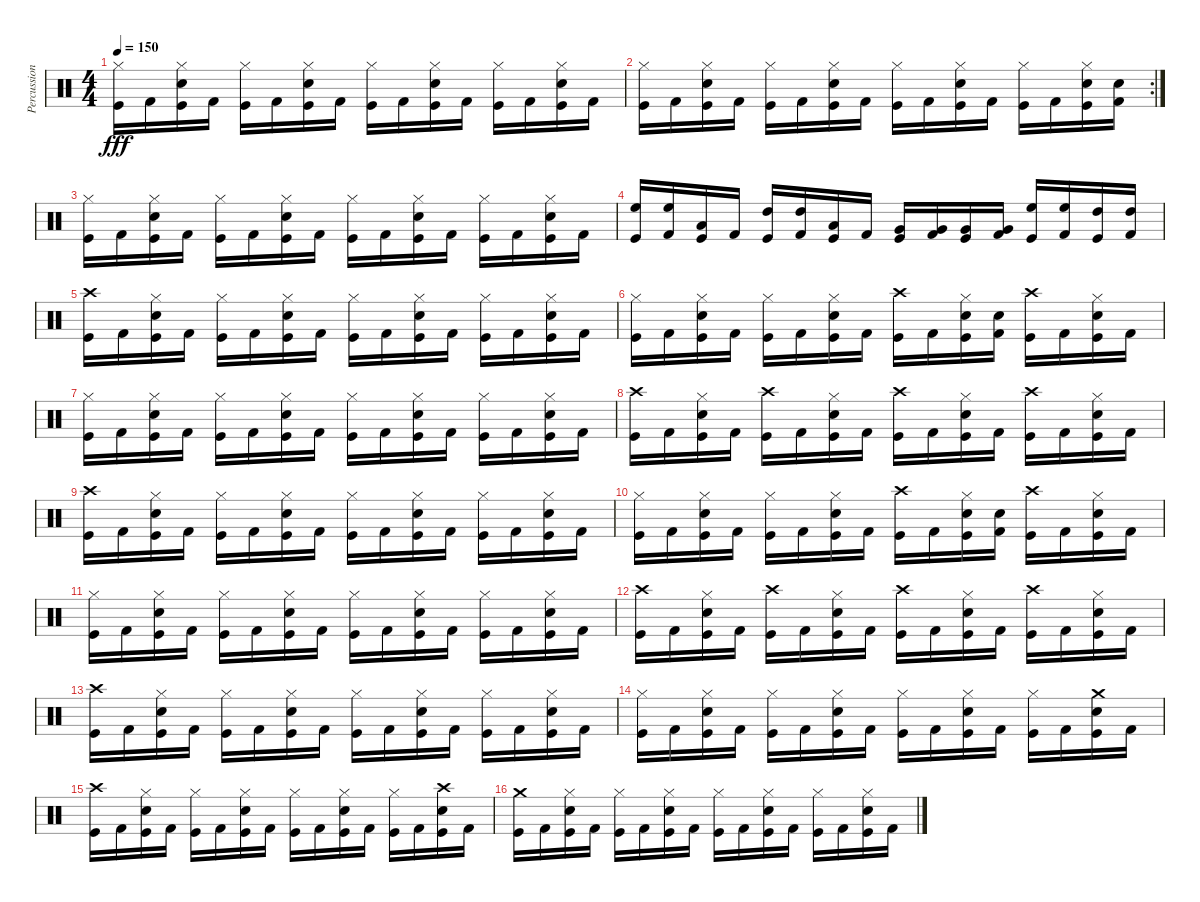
\track ("Percussion" "Percussion") {instrument percussion}
\staff {score}
\articulation defaults
\ts (4 4)
\tempo 150
\clef neutral
\ks c
("Hi-Hat (closed)" "Kick (hit)").16{dy fff} "Kick (hit) 2".16 ("Hi-Hat (closed)" "Electric Snare (hit)" "Kick (hit)").16 "Kick (hit) 2".16 ("Hi-Hat (closed)" "Kick (hit)").16 "Kick (hit) 2".16 ("Hi-Hat (closed)" "Electric Snare (hit)" "Kick (hit)").16 "Kick (hit) 2".16 ("Hi-Hat (closed)" "Kick (hit)").16 "Kick (hit) 2".16 ("Hi-Hat (closed)" "Electric Snare (hit)" "Kick (hit)").16 "Kick (hit) 2".16 ("Hi-Hat (closed)" "Kick (hit)").16 "Kick (hit) 2".16 ("Hi-Hat (closed)" "Electric Snare (hit)" "Kick (hit)").16 "Kick (hit) 2".16 |
\rc 2
("Hi-Hat (closed)" "Kick (hit)").16 "Kick (hit) 2".16 ("Hi-Hat (closed)" "Electric Snare (hit)" "Kick (hit)").16 "Kick (hit) 2".16 ("Hi-Hat (closed)" "Kick (hit)").16 "Kick (hit) 2".16 ("Hi-Hat (closed)" "Electric Snare (hit)" "Kick (hit)").16 "Kick (hit) 2".16 ("Hi-Hat (closed)" "Kick (hit)").16 "Kick (hit) 2".16 ("Hi-Hat (closed)" "Electric Snare (hit)" "Kick (hit)").16 "Kick (hit) 2".16 ("Hi-Hat (closed)" "Kick (hit)").16 "Kick (hit) 2".16 ("Hi-Hat (closed)" "Electric Snare (hit)" "Kick (hit)").16 ("Electric Snare (hit)" "Kick (hit) 2").16 |
("Hi-Hat (closed)" "Kick (hit)").16 "Kick (hit) 2".16 ("Hi-Hat (closed)" "Electric Snare (hit)" "Kick (hit)").16 "Kick (hit) 2".16 ("Hi-Hat (closed)" "Kick (hit)").16 "Kick (hit) 2".16 ("Hi-Hat (closed)" "Electric Snare (hit)" "Kick (hit)").16 "Kick (hit) 2".16 ("Hi-Hat (closed)" "Kick (hit)").16 "Kick (hit) 2".16 ("Hi-Hat (closed)" "Electric Snare (hit)" "Kick (hit)").16 "Kick (hit) 2".16 ("Hi-Hat (closed)" "Kick (hit)").16 "Kick (hit) 2".16 ("Hi-Hat (closed)" "Electric Snare (hit)" "Kick (hit)").16 "Kick (hit) 2".16 |
("High Floor Tom (hit)" "Kick (hit)").16 ("High Floor Tom (hit)" "Kick (hit) 2").16 ("Low Floor Tom (hit)" "Kick (hit)").16 "Kick (hit) 2".16 ("High Tom (hit)" "Kick (hit)").16 ("High Tom (hit)" "Kick (hit) 2").16 ("Low Floor Tom (hit)" "Kick (hit)").16 "Kick (hit) 2".16 ("Very Low Tom (hit)" "Kick (hit)").16 ("Very Low Tom (hit)" "Kick (hit) 2").16 ("Very Low Tom (hit)" "Kick (hit)").16 ("Very Low Tom (hit)" "Kick (hit) 2").16 ("High Floor Tom (hit)" "Kick (hit)").16 ("High Floor Tom (hit)" "Kick (hit) 2").16 ("High Tom (hit)" "Kick (hit)").16 ("High Tom (hit)" "Kick (hit) 2").16 |
("Crash high (hit)" "Kick (hit)").16 "Kick (hit) 2".16 ("Hi-Hat (closed)" "Electric Snare (hit)" "Kick (hit)").16 "Kick (hit) 2".16 ("Hi-Hat (closed)" "Kick (hit)").16 "Kick (hit) 2".16 ("Hi-Hat (closed)" "Electric Snare (hit)" "Kick (hit)").16 "Kick (hit) 2".16 ("Hi-Hat (closed)" "Kick (hit)").16 "Kick (hit) 2".16 ("Hi-Hat (closed)" "Electric Snare (hit)" "Kick (hit)").16 "Kick (hit) 2".16 ("Hi-Hat (closed)" "Kick (hit)").16 "Kick (hit) 2".16 ("Hi-Hat (closed)" "Electric Snare (hit)" "Kick (hit)").16 "Kick (hit) 2".16 |
("Hi-Hat (closed)" "Kick (hit)").16 "Kick (hit) 2".16 ("Hi-Hat (closed)" "Electric Snare (hit)" "Kick (hit)").16 "Kick (hit) 2".16 ("Hi-Hat (closed)" "Kick (hit)").16 "Kick (hit) 2".16 ("Hi-Hat (closed)" "Electric Snare (hit)" "Kick (hit)").16 "Kick (hit) 2".16 ("Crash high (hit)" "Kick (hit)").16 "Kick (hit) 2".16 ("Hi-Hat (closed)" "Electric Snare (hit)" "Kick (hit)").16 ("Electric Snare (hit)" "Kick (hit) 2").16 ("Crash high (hit)" "Kick (hit)").16 "Kick (hit) 2".16 ("Hi-Hat (closed)" "Electric Snare (hit)" "Kick (hit)").16 "Kick (hit) 2".16 |
("Hi-Hat (closed)" "Kick (hit)").16 "Kick (hit) 2".16 ("Hi-Hat (closed)" "Electric Snare (hit)" "Kick (hit)").16 "Kick (hit) 2".16 ("Hi-Hat (closed)" "Kick (hit)").16 "Kick (hit) 2".16 ("Hi-Hat (closed)" "Electric Snare (hit)" "Kick (hit)").16 "Kick (hit) 2".16 ("Hi-Hat (closed)" "Kick (hit)").16 "Kick (hit) 2".16 ("Hi-Hat (closed)" "Electric Snare (hit)" "Kick (hit)").16 "Kick (hit) 2".16 ("Hi-Hat (closed)" "Kick (hit)").16 "Kick (hit) 2".16 ("Hi-Hat (closed)" "Electric Snare (hit)" "Kick (hit)").16 "Kick (hit) 2".16 |
("Crash high (hit)" "Kick (hit)").16 "Kick (hit) 2".16 ("Hi-Hat (closed)" "Electric Snare (hit)" "Kick (hit)").16 "Kick (hit) 2".16 ("Crash high (hit)" "Kick (hit)").16 "Kick (hit) 2".16 ("Hi-Hat (closed)" "Electric Snare (hit)" "Kick (hit)").16 "Kick (hit) 2".16 ("Crash high (hit)" "Kick (hit)").16 "Kick (hit) 2".16 ("Hi-Hat (closed)" "Electric Snare (hit)" "Kick (hit)").16 "Kick (hit) 2".16 ("Crash high (hit)" "Kick (hit)").16 "Kick (hit) 2".16 ("Hi-Hat (closed)" "Electric Snare (hit)" "Kick (hit)").16 "Kick (hit) 2".16 |
("Crash high (hit)" "Kick (hit)").16 "Kick (hit) 2".16 ("Hi-Hat (closed)" "Electric Snare (hit)" "Kick (hit)").16 "Kick (hit) 2".16 ("Hi-Hat (closed)" "Kick (hit)").16 "Kick (hit) 2".16 ("Hi-Hat (closed)" "Electric Snare (hit)" "Kick (hit)").16 "Kick (hit) 2".16 ("Hi-Hat (closed)" "Kick (hit)").16 "Kick (hit) 2".16 ("Hi-Hat (closed)" "Electric Snare (hit)" "Kick (hit)").16 "Kick (hit) 2".16 ("Hi-Hat (closed)" "Kick (hit)").16 "Kick (hit) 2".16 ("Hi-Hat (closed)" "Electric Snare (hit)" "Kick (hit)").16 "Kick (hit) 2".16 |
("Hi-Hat (closed)" "Kick (hit)").16 "Kick (hit) 2".16 ("Hi-Hat (closed)" "Electric Snare (hit)" "Kick (hit)").16 "Kick (hit) 2".16 ("Hi-Hat (closed)" "Kick (hit)").16 "Kick (hit) 2".16 ("Hi-Hat (closed)" "Electric Snare (hit)" "Kick (hit)").16 "Kick (hit) 2".16 ("Crash high (hit)" "Kick (hit)").16 "Kick (hit) 2".16 ("Hi-Hat (closed)" "Electric Snare (hit)" "Kick (hit)").16 ("Electric Snare (hit)" "Kick (hit) 2").16 ("Crash high (hit)" "Kick (hit)").16 "Kick (hit) 2".16 ("Hi-Hat (closed)" "Electric Snare (hit)" "Kick (hit)").16 "Kick (hit) 2".16 |
("Hi-Hat (closed)" "Kick (hit)").16 "Kick (hit) 2".16 ("Hi-Hat (closed)" "Electric Snare (hit)" "Kick (hit)").16 "Kick (hit) 2".16 ("Hi-Hat (closed)" "Kick (hit)").16 "Kick (hit) 2".16 ("Hi-Hat (closed)" "Electric Snare (hit)" "Kick (hit)").16 "Kick (hit) 2".16 ("Hi-Hat (closed)" "Kick (hit)").16 "Kick (hit) 2".16 ("Hi-Hat (closed)" "Electric Snare (hit)" "Kick (hit)").16 "Kick (hit) 2".16 ("Hi-Hat (closed)" "Kick (hit)").16 "Kick (hit) 2".16 ("Hi-Hat (closed)" "Electric Snare (hit)" "Kick (hit)").16 "Kick (hit) 2".16 |
("Crash high (hit)" "Kick (hit)").16 "Kick (hit) 2".16 ("Hi-Hat (closed)" "Electric Snare (hit)" "Kick (hit)").16 "Kick (hit) 2".16 ("Crash high (hit)" "Kick (hit)").16 "Kick (hit) 2".16 ("Hi-Hat (closed)" "Electric Snare (hit)" "Kick (hit)").16 "Kick (hit) 2".16 ("Crash high (hit)" "Kick (hit)").16 "Kick (hit) 2".16 ("Hi-Hat (closed)" "Electric Snare (hit)" "Kick (hit)").16 "Kick (hit) 2".16 ("Crash high (hit)" "Kick (hit)").16 "Kick (hit) 2".16 ("Hi-Hat (closed)" "Electric Snare (hit)" "Kick (hit)").16 "Kick (hit) 2".16 |
("Crash high (hit)" "Kick (hit)").16 "Kick (hit) 2".16 ("Hi-Hat (closed)" "Electric Snare (hit)" "Kick (hit)").16 "Kick (hit) 2".16 ("Hi-Hat (closed)" "Kick (hit)").16 "Kick (hit) 2".16 ("Hi-Hat (closed)" "Electric Snare (hit)" "Kick (hit)").16 "Kick (hit) 2".16 ("Hi-Hat (closed)" "Kick (hit)").16 "Kick (hit) 2".16 ("Hi-Hat (closed)" "Electric Snare (hit)" "Kick (hit)").16 "Kick (hit) 2".16 ("Hi-Hat (closed)" "Kick (hit)").16 "Kick (hit) 2".16 ("Hi-Hat (closed)" "Electric Snare (hit)" "Kick (hit)").16 "Kick (hit) 2".16 |
("Hi-Hat (closed)" "Kick (hit)").16 "Kick (hit) 2".16 ("Hi-Hat (closed)" "Electric Snare (hit)" "Kick (hit)").16 "Kick (hit) 2".16 ("Hi-Hat (closed)" "Kick (hit)").16 "Kick (hit) 2".16 ("Hi-Hat (closed)" "Electric Snare (hit)" "Kick (hit)").16 "Kick (hit) 2".16 ("Hi-Hat (closed)" "Kick (hit)").16 "Kick (hit) 2".16 ("Hi-Hat (closed)" "Electric Snare (hit)" "Kick (hit)").16 "Kick (hit) 2".16 ("Hi-Hat (closed)" "Kick (hit)").16 "Kick (hit) 2".16 ("Crash medium (hit)" "Electric Snare (hit)" "Kick (hit)").16 "Kick (hit) 2".16 |
("Crash high (hit)" "Kick (hit)").16 "Kick (hit) 2".16 ("Hi-Hat (closed)" "Electric Snare (hit)" "Kick (hit)").16 "Kick (hit) 2".16 ("Hi-Hat (closed)" "Kick (hit)").16 "Kick (hit) 2".16 ("Hi-Hat (closed)" "Electric Snare (hit)" "Kick (hit)").16 "Kick (hit) 2".16 ("Hi-Hat (closed)" "Kick (hit)").16 "Kick (hit) 2".16 ("Hi-Hat (closed)" "Electric Snare (hit)" "Kick (hit)").16 "Kick (hit) 2".16 ("Hi-Hat (closed)" "Kick (hit)").16 "Kick (hit) 2".16 ("Crash high (hit)" "Electric Snare (hit)" "Kick (hit)").16 "Kick (hit) 2".16 |
("Crash medium (hit)" "Kick (hit)").16 "Kick (hit) 2".16 ("Hi-Hat (closed)" "Electric Snare (hit)" "Kick (hit)").16 "Kick (hit) 2".16 ("Hi-Hat (closed)" "Kick (hit)").16 "Kick (hit) 2".16 ("Hi-Hat (closed)" "Electric Snare (hit)" "Kick (hit)").16 "Kick (hit) 2".16 ("Hi-Hat (closed)" "Kick (hit)").16 "Kick (hit) 2".16 ("Hi-Hat (closed)" "Electric Snare (hit)" "Kick (hit)").16 "Kick (hit) 2".16 ("Hi-Hat (closed)" "Kick (hit)").16 "Kick (hit) 2".16 ("Hi-Hat (closed)" "Electric Snare (hit)" "Kick (hit)").16 "Kick (hit) 2".16
